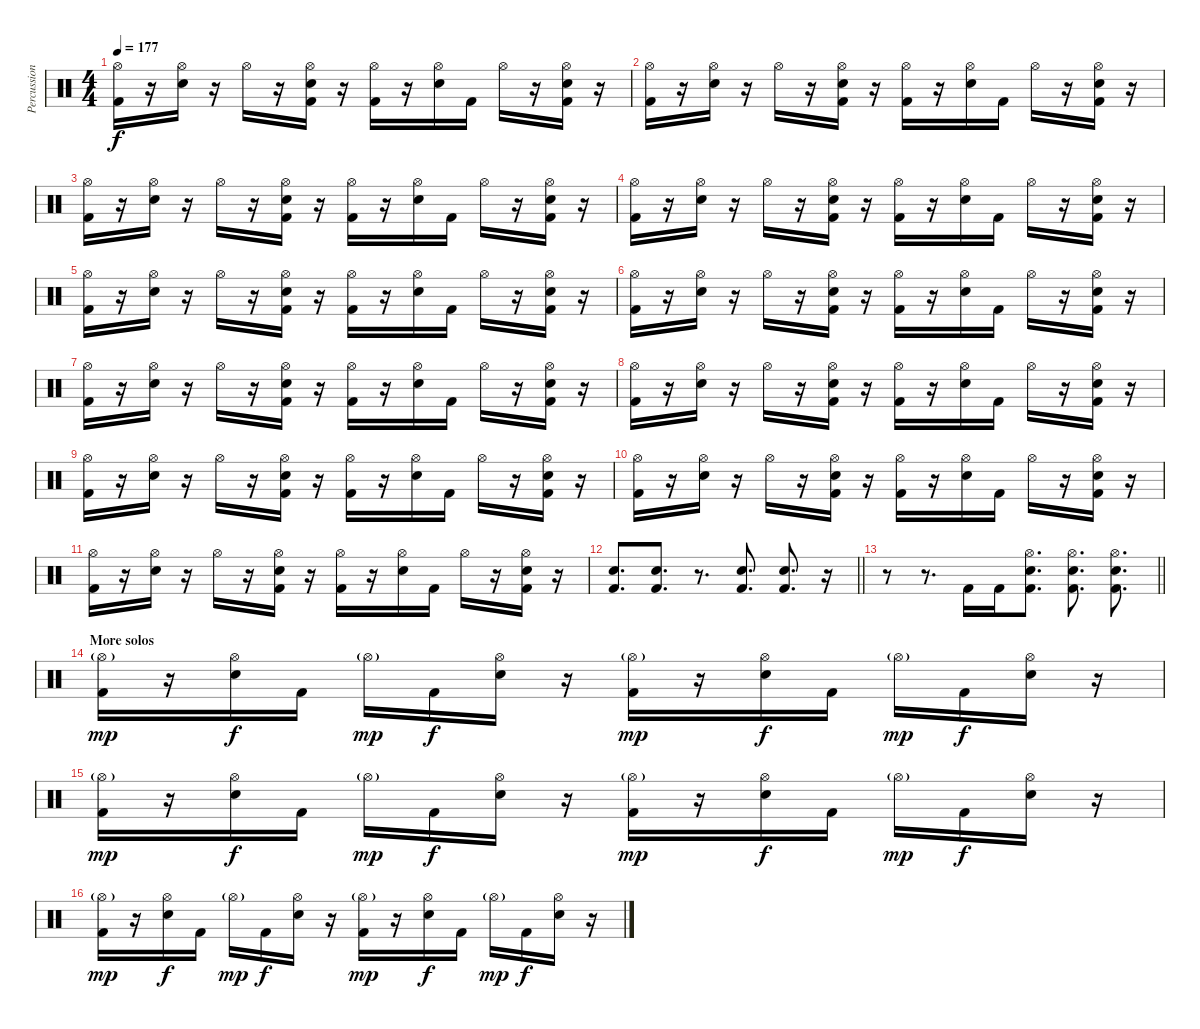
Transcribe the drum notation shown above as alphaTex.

\track ("Percussion" "Percussion") {instrument percussion}
\staff {score}
\articulation defaults
\ts (4 4)
\tempo 177
\clef neutral
\ks c
("Hi-Hat (open)" "Kick (hit) 2").16{dy f} r.16 ("Hi-Hat (open)" "Snare (hit) 2").16 r.16 "Hi-Hat (open)".16 r.16 ("Hi-Hat (open)" "Snare (hit) 2" "Kick (hit) 2").16 r.16 ("Hi-Hat (open)" "Kick (hit) 2").16 r.16 ("Hi-Hat (open)" "Snare (hit) 2").16 "Kick (hit) 2".16 "Hi-Hat (open)".16 r.16 ("Hi-Hat (open)" "Snare (hit) 2" "Kick (hit) 2").16 r.16 |
("Hi-Hat (open)" "Kick (hit) 2").16 r.16 ("Hi-Hat (open)" "Snare (hit) 2").16 r.16 "Hi-Hat (open)".16 r.16 ("Hi-Hat (open)" "Snare (hit) 2" "Kick (hit) 2").16 r.16 ("Hi-Hat (open)" "Kick (hit) 2").16 r.16 ("Hi-Hat (open)" "Snare (hit) 2").16 "Kick (hit) 2".16 "Hi-Hat (open)".16 r.16 ("Hi-Hat (open)" "Snare (hit) 2" "Kick (hit) 2").16 r.16 |
("Hi-Hat (open)" "Kick (hit) 2").16 r.16 ("Hi-Hat (open)" "Snare (hit) 2").16 r.16 "Hi-Hat (open)".16 r.16 ("Hi-Hat (open)" "Snare (hit) 2" "Kick (hit) 2").16 r.16 ("Hi-Hat (open)" "Kick (hit) 2").16 r.16 ("Hi-Hat (open)" "Snare (hit) 2").16 "Kick (hit) 2".16 "Hi-Hat (open)".16 r.16 ("Hi-Hat (open)" "Snare (hit) 2" "Kick (hit) 2").16 r.16 |
("Hi-Hat (open)" "Kick (hit) 2").16 r.16 ("Hi-Hat (open)" "Snare (hit) 2").16 r.16 "Hi-Hat (open)".16 r.16 ("Hi-Hat (open)" "Snare (hit) 2" "Kick (hit) 2").16 r.16 ("Hi-Hat (open)" "Kick (hit) 2").16 r.16 ("Hi-Hat (open)" "Snare (hit) 2").16 "Kick (hit) 2".16 "Hi-Hat (open)".16 r.16 ("Hi-Hat (open)" "Snare (hit) 2" "Kick (hit) 2").16 r.16 |
("Hi-Hat (open)" "Kick (hit) 2").16 r.16 ("Hi-Hat (open)" "Snare (hit) 2").16 r.16 "Hi-Hat (open)".16 r.16 ("Hi-Hat (open)" "Snare (hit) 2" "Kick (hit) 2").16 r.16 ("Hi-Hat (open)" "Kick (hit) 2").16 r.16 ("Hi-Hat (open)" "Snare (hit) 2").16 "Kick (hit) 2".16 "Hi-Hat (open)".16 r.16 ("Hi-Hat (open)" "Snare (hit) 2" "Kick (hit) 2").16 r.16 |
("Hi-Hat (open)" "Kick (hit) 2").16 r.16 ("Hi-Hat (open)" "Snare (hit) 2").16 r.16 "Hi-Hat (open)".16 r.16 ("Hi-Hat (open)" "Snare (hit) 2" "Kick (hit) 2").16 r.16 ("Hi-Hat (open)" "Kick (hit) 2").16 r.16 ("Hi-Hat (open)" "Snare (hit) 2").16 "Kick (hit) 2".16 "Hi-Hat (open)".16 r.16 ("Hi-Hat (open)" "Snare (hit) 2" "Kick (hit) 2").16 r.16 |
("Hi-Hat (open)" "Kick (hit) 2").16 r.16 ("Hi-Hat (open)" "Snare (hit) 2").16 r.16 "Hi-Hat (open)".16 r.16 ("Hi-Hat (open)" "Snare (hit) 2" "Kick (hit) 2").16 r.16 ("Hi-Hat (open)" "Kick (hit) 2").16 r.16 ("Hi-Hat (open)" "Snare (hit) 2").16 "Kick (hit) 2".16 "Hi-Hat (open)".16 r.16 ("Hi-Hat (open)" "Snare (hit) 2" "Kick (hit) 2").16 r.16 |
("Hi-Hat (open)" "Kick (hit) 2").16 r.16 ("Hi-Hat (open)" "Snare (hit) 2").16 r.16 "Hi-Hat (open)".16 r.16 ("Hi-Hat (open)" "Snare (hit) 2" "Kick (hit) 2").16 r.16 ("Hi-Hat (open)" "Kick (hit) 2").16 r.16 ("Hi-Hat (open)" "Snare (hit) 2").16 "Kick (hit) 2".16 "Hi-Hat (open)".16 r.16 ("Hi-Hat (open)" "Snare (hit) 2" "Kick (hit) 2").16 r.16 |
("Hi-Hat (open)" "Kick (hit) 2").16 r.16 ("Hi-Hat (open)" "Snare (hit) 2").16 r.16 "Hi-Hat (open)".16 r.16 ("Hi-Hat (open)" "Snare (hit) 2" "Kick (hit) 2").16 r.16 ("Hi-Hat (open)" "Kick (hit) 2").16 r.16 ("Hi-Hat (open)" "Snare (hit) 2").16 "Kick (hit) 2".16 "Hi-Hat (open)".16 r.16 ("Hi-Hat (open)" "Snare (hit) 2" "Kick (hit) 2").16 r.16 |
("Hi-Hat (open)" "Kick (hit) 2").16 r.16 ("Hi-Hat (open)" "Snare (hit) 2").16 r.16 "Hi-Hat (open)".16 r.16 ("Hi-Hat (open)" "Snare (hit) 2" "Kick (hit) 2").16 r.16 ("Hi-Hat (open)" "Kick (hit) 2").16 r.16 ("Hi-Hat (open)" "Snare (hit) 2").16 "Kick (hit) 2".16 "Hi-Hat (open)".16 r.16 ("Hi-Hat (open)" "Snare (hit) 2" "Kick (hit) 2").16 r.16 |
("Hi-Hat (open)" "Kick (hit) 2").16 r.16 ("Hi-Hat (open)" "Snare (hit) 2").16 r.16 "Hi-Hat (open)".16 r.16 ("Hi-Hat (open)" "Snare (hit) 2" "Kick (hit) 2").16 r.16 ("Hi-Hat (open)" "Kick (hit) 2").16 r.16 ("Hi-Hat (open)" "Snare (hit) 2").16 "Kick (hit) 2".16 "Hi-Hat (open)".16 r.16 ("Hi-Hat (open)" "Snare (hit) 2" "Kick (hit) 2").16 r.16 |
\barLineRight lightlight
("Snare (hit) 2" "Kick (hit) 2").8{d} ("Snare (hit) 2" "Kick (hit) 2").8{d} r.8{d} ("Snare (hit) 2" "Kick (hit) 2").8{d} ("Snare (hit) 2" "Kick (hit) 2").8{d} r.16 |
\barLineRight lightlight
r.8 r.8{d} "Kick (hit) 2".16 "Kick (hit) 2".16 ("Hi-Hat (open)" "Kick (hit) 2" "Snare (hit) 2").8{d} ("Hi-Hat (open)" "Kick (hit) 2" "Snare (hit) 2").8{d} ("Hi-Hat (open)" "Kick (hit) 2" "Snare (hit) 2").8{d} |
\section ("" "More solos")
("Hi-Hat (open)"{g} "Kick (hit) 2").16{dy mp} r.16 ("Hi-Hat (open)" "Snare (hit) 2").16{dy f} "Kick (hit) 2".16 "Hi-Hat (open)"{g}.16{dy mp} "Kick (hit) 2".16{dy f} ("Hi-Hat (open)" "Snare (hit) 2").16 r.16 ("Hi-Hat (open)"{g} "Kick (hit) 2").16{dy mp} r.16 ("Hi-Hat (open)" "Snare (hit) 2").16{dy f} "Kick (hit) 2".16 "Hi-Hat (open)"{g}.16{dy mp} "Kick (hit) 2".16{dy f} ("Hi-Hat (open)" "Snare (hit) 2").16 r.16 |
("Hi-Hat (open)"{g} "Kick (hit) 2").16{dy mp} r.16 ("Hi-Hat (open)" "Snare (hit) 2").16{dy f} "Kick (hit) 2".16 "Hi-Hat (open)"{g}.16{dy mp} "Kick (hit) 2".16{dy f} ("Hi-Hat (open)" "Snare (hit) 2").16 r.16 ("Hi-Hat (open)"{g} "Kick (hit) 2").16{dy mp} r.16 ("Hi-Hat (open)" "Snare (hit) 2").16{dy f} "Kick (hit) 2".16 "Hi-Hat (open)"{g}.16{dy mp} "Kick (hit) 2".16{dy f} ("Hi-Hat (open)" "Snare (hit) 2").16 r.16 |
("Hi-Hat (open)"{g} "Kick (hit) 2").16{dy mp} r.16 ("Hi-Hat (open)" "Snare (hit) 2").16{dy f} "Kick (hit) 2".16 "Hi-Hat (open)"{g}.16{dy mp} "Kick (hit) 2".16{dy f} ("Hi-Hat (open)" "Snare (hit) 2").16 r.16 ("Hi-Hat (open)"{g} "Kick (hit) 2").16{dy mp} r.16 ("Hi-Hat (open)" "Snare (hit) 2").16{dy f} "Kick (hit) 2".16 "Hi-Hat (open)"{g}.16{dy mp} "Kick (hit) 2".16{dy f} ("Hi-Hat (open)" "Snare (hit) 2").16 r.16
